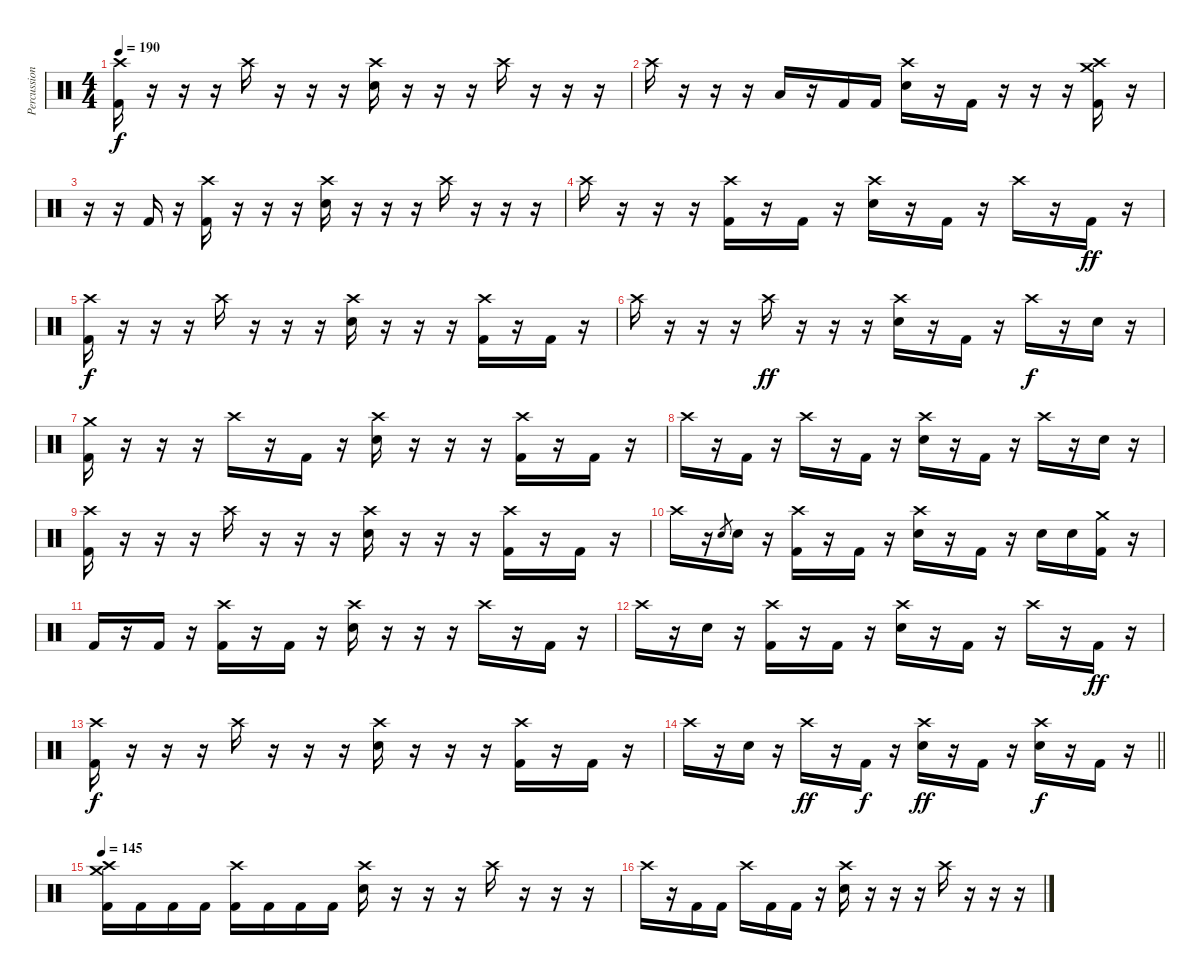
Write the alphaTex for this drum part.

\track ("Percussion" "Percussion") {instrument percussion}
\staff {score}
\articulation defaults
\ts (4 4)
\tempo 190
\clef neutral
\ks c
("Crash high (hit)" "Kick (hit) 2").16{dy f} r.16 r.16 r.16 "Crash high (hit)".16 r.16 r.16 r.16 ("Crash high (hit)" "Snare (hit) 2").16 r.16 r.16 r.16 "Crash high (hit)".16 r.16 r.16 r.16 |
"Crash high (hit)".16 r.16 r.16 r.16 "Low Tom (hit)".16 r.16 "Kick (hit) 2".16 "Kick (hit) 2".16 ("Crash high (hit)" "Snare (hit) 2").16 r.16 "Kick (hit) 2".16 r.16 r.16 r.16 ("Crash high (hit)" "Crash medium (hit)" "Kick (hit) 2").16 r.16 |
r.16 r.16 "Kick (hit) 2".16 r.16 ("Crash high (hit)" "Kick (hit) 2").16 r.16 r.16 r.16 ("Crash high (hit)" "Snare (hit) 2").16 r.16 r.16 r.16 "Crash high (hit)".16 r.16 r.16 r.16 |
"Crash high (hit)".16 r.16 r.16 r.16 ("Crash high (hit)" "Kick (hit) 2").16 r.16 "Kick (hit) 2".16 r.16 ("Crash high (hit)" "Snare (hit) 2").16 r.16 "Kick (hit) 2".16 r.16 "Crash high (hit)".16 r.16 "Kick (hit) 2".16{dy ff} r.16 |
("Crash high (hit)" "Kick (hit) 2").16{dy f} r.16 r.16 r.16 "Crash high (hit)".16 r.16 r.16 r.16 ("Crash high (hit)" "Snare (hit) 2").16 r.16 r.16 r.16 ("Crash high (hit)" "Kick (hit) 2").16 r.16 "Kick (hit) 2".16 r.16 |
"Crash high (hit)".16 r.16 r.16 r.16 "Crash high (hit)".16{dy ff} r.16 r.16 r.16 ("Crash high (hit)" "Snare (hit) 2").16 r.16 "Kick (hit) 2".16 r.16 "Crash high (hit)".16{dy f} r.16 "Snare (hit) 2".16 r.16 |
("Crash medium (hit)" "Kick (hit) 2").16 r.16 r.16 r.16 "Crash high (hit)".16 r.16 "Kick (hit) 2".16 r.16 ("Crash high (hit)" "Snare (hit) 2").16 r.16 r.16 r.16 ("Crash high (hit)" "Kick (hit) 2").16 r.16 "Kick (hit) 2".16 r.16 |
"Crash high (hit)".16 r.16 "Kick (hit) 2".16 r.16 "Crash high (hit)".16 r.16 "Kick (hit) 2".16 r.16 ("Crash high (hit)" "Snare (hit) 2").16 r.16 "Kick (hit) 2".16 r.16 "Crash high (hit)".16 r.16 "Snare (hit) 2".16 r.16 |
("Crash high (hit)" "Kick (hit) 2").16 r.16 r.16 r.16 "Crash high (hit)".16 r.16 r.16 r.16 ("Crash high (hit)" "Snare (hit) 2").16 r.16 r.16 r.16 ("Crash high (hit)" "Kick (hit) 2").16 r.16 "Kick (hit) 2".16 r.16 |
"Crash high (hit)".16 r.16 "Snare (hit) 2".8{gr} "Snare (hit) 2".16 r.16 ("Crash high (hit)" "Kick (hit) 2").16 r.16 "Kick (hit) 2".16 r.16 ("Crash high (hit)" "Snare (hit) 2").16 r.16 "Kick (hit) 2".16 r.16 "Snare (hit) 2".16 "Snare (hit) 2".16 ("Crash medium (hit)" "Kick (hit) 2").16 r.16 |
"Kick (hit) 2".16 r.16 "Kick (hit) 2".16 r.16 ("Crash high (hit)" "Kick (hit) 2").16 r.16 "Kick (hit) 2".16 r.16 ("Crash high (hit)" "Snare (hit) 2").16 r.16 r.16 r.16 "Crash high (hit)".16 r.16 "Kick (hit) 2".16 r.16 |
"Crash high (hit)".16 r.16 "Snare (hit) 2".16 r.16 ("Crash high (hit)" "Kick (hit) 2").16 r.16 "Kick (hit) 2".16 r.16 ("Crash high (hit)" "Snare (hit) 2").16 r.16 "Kick (hit) 2".16 r.16 "Crash high (hit)".16 r.16 "Kick (hit) 2".16{dy ff} r.16 |
("Crash high (hit)" "Kick (hit) 2").16{dy f} r.16 r.16 r.16 "Crash high (hit)".16 r.16 r.16 r.16 ("Crash high (hit)" "Snare (hit) 2").16 r.16 r.16 r.16 ("Crash high (hit)" "Kick (hit) 2").16 r.16 "Kick (hit) 2".16 r.16 |
\barLineRight lightlight "Crash high (hit)".16
r.16 "Snare (hit) 2".16 r.16 "Crash high (hit)".16{dy ff} r.16 "Kick (hit) 2".16{dy f} r.16 ("Crash high (hit)" "Snare (hit) 2").16{dy ff} r.16 "Kick (hit) 2".16 r.16 ("Crash high (hit)" "Snare (hit) 2").16{dy f} r.16 "Kick (hit) 2".16 r.16 |
\section ("" "")
\tempo 145
("Crash high (hit)" "Crash medium (hit)" "Kick (hit) 2").16 "Kick (hit) 2".16 "Kick (hit) 2".16 "Kick (hit) 2".16 ("Crash high (hit)" "Kick (hit) 2").16 "Kick (hit) 2".16 "Kick (hit) 2".16 "Kick (hit) 2".16 ("Crash high (hit)" "Snare (hit) 2").16 r.16 r.16 r.16 "Crash high (hit)".16 r.16 r.16 r.16 |
"Crash high (hit)".16 r.16 "Kick (hit) 2".16 "Kick (hit) 2".16 "Crash high (hit)".16 "Kick (hit) 2".16 "Kick (hit) 2".16 r.16 ("Crash high (hit)" "Snare (hit) 2").16 r.16 r.16 r.16 "Crash high (hit)".16 r.16 r.16 r.16
